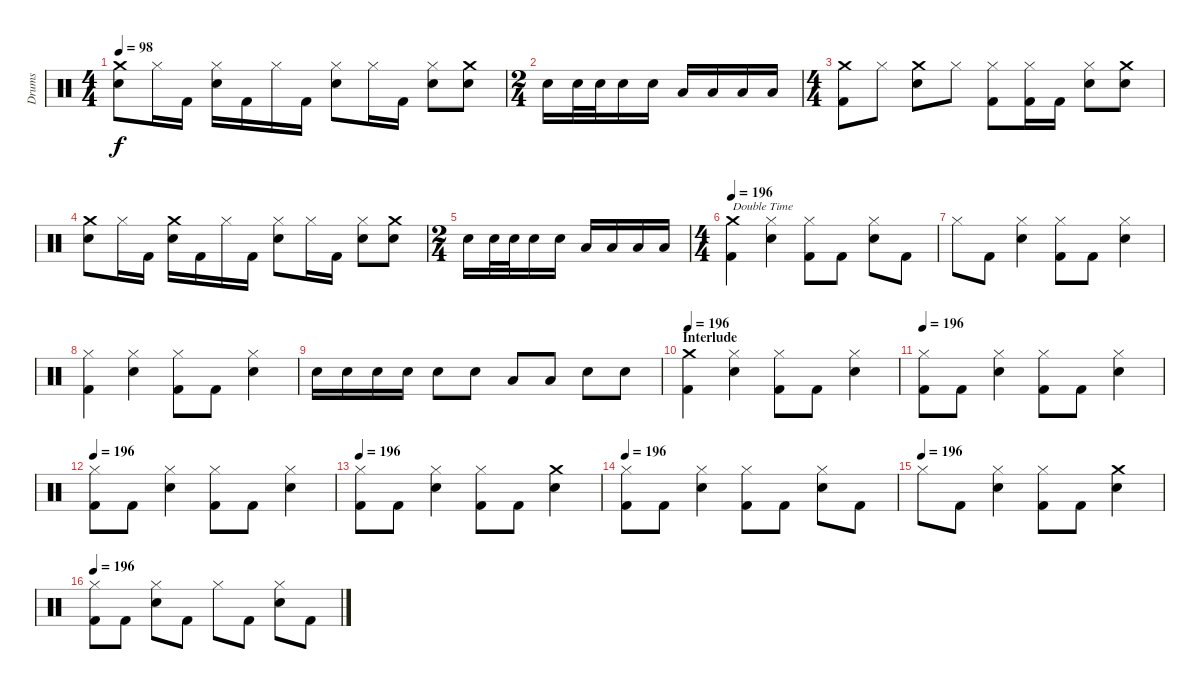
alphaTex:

\track ("Drums" "Drums") {instrument percussion}
\staff {score}
\articulation defaults
\ts (4 4)
\tempo 98
\clef neutral
\ks c
("Snare (hit) 2" "Crash medium (hit)").8{dy f} "Hi-Hat (closed)".16 "Kick (hit) 2".16 ("Snare (hit) 2" "Hi-Hat (closed)").16 "Kick (hit) 2".16 "Hi-Hat (closed)".16 "Kick (hit) 2".16 ("Hi-Hat (closed)" "Snare (hit) 2").8 "Hi-Hat (closed)".16 "Kick (hit) 2".16 ("Snare (hit) 2" "Hi-Hat (closed)").8 ("Crash medium (hit)" "Snare (hit) 2").8 |
\ts (2 4)
"Snare (hit) 2".16 "Snare (hit) 2".32 "Snare (hit) 2".32 "Snare (hit) 2".16 "Snare (hit) 2".16 "Low Tom (hit)".16 "Low Tom (hit)".16 "Low Tom (hit)".16 "Low Tom (hit)".16 |
\ts (4 4)
("Kick (hit) 2" "Crash medium (hit)").8 "Hi-Hat (closed)".8 ("Crash medium (hit)" "Snare (hit) 2").8 "Hi-Hat (closed)".8 ("Kick (hit) 2" "Hi-Hat (closed)").8 ("Kick (hit) 2" "Hi-Hat (closed)").16 "Kick (hit) 2".16 ("Snare (hit) 2" "Hi-Hat (closed)").8 ("Crash medium (hit)" "Snare (hit) 2").8 |
("Snare (hit) 2" "Crash medium (hit)").8 "Hi-Hat (closed)".16 "Kick (hit) 2".16 ("Snare (hit) 2" "Crash medium (hit)").16 "Kick (hit) 2".16 "Hi-Hat (closed)".16 "Kick (hit) 2".16 ("Snare (hit) 2" "Hi-Hat (closed)").8 "Hi-Hat (closed)".16 "Kick (hit) 2".16 ("Snare (hit) 2" "Hi-Hat (closed)").8 ("Crash medium (hit)" "Snare (hit) 2").8 |
\ts (2 4)
"Snare (hit) 2".16 "Snare (hit) 2".32 "Snare (hit) 2".32 "Snare (hit) 2".16 "Snare (hit) 2".16 "Low Tom (hit)".16 "Low Tom (hit)".16 "Low Tom (hit)".16 "Low Tom (hit)".16 |
\ts (4 4)
\tempo 196
("Kick (hit) 2" "Crash medium (hit)").4{txt "Double Time"} ("Hi-Hat (closed)" "Snare (hit) 2").4 ("Kick (hit) 2" "Hi-Hat (closed)").8 "Kick (hit) 2".8 ("Snare (hit) 2" "Hi-Hat (closed)").8 "Kick (hit) 2".8 |
"Hi-Hat (closed)".8 "Kick (hit) 2".8 ("Snare (hit) 2" "Hi-Hat (closed)").4 ("Kick (hit) 2" "Hi-Hat (closed)").8 "Kick (hit) 2".8 ("Snare (hit) 2" "Hi-Hat (closed)").4 |
("Hi-Hat (closed)" "Kick (hit) 2").4 ("Snare (hit) 2" "Hi-Hat (closed)").4 ("Kick (hit) 2" "Hi-Hat (closed)").8 "Kick (hit) 2".8 ("Snare (hit) 2" "Hi-Hat (closed)").4 |
"Snare (hit) 2".16 "Snare (hit) 2".16 "Snare (hit) 2".16 "Snare (hit) 2".16 "Snare (hit) 2".8 "Snare (hit) 2".8 "Low Tom (hit)".8 "Low Tom (hit)".8 "Snare (hit) 2".8 "Snare (hit) 2".8 |
\section ("" "Interlude")
\tempo 196
("Kick (hit) 2" "Crash medium (hit)").4 ("Hi-Hat (closed)" "Snare (hit) 2").4 ("Kick (hit) 2" "Hi-Hat (closed)").8 "Kick (hit) 2".8 ("Snare (hit) 2" "Hi-Hat (closed)").4 |
\tempo 196
("Hi-Hat (closed)" "Kick (hit) 2").8 "Kick (hit) 2".8 ("Snare (hit) 2" "Hi-Hat (closed)").4 ("Hi-Hat (closed)" "Kick (hit) 2").8 "Kick (hit) 2".8 ("Snare (hit) 2" "Hi-Hat (closed)").4 |
\tempo 196
("Hi-Hat (closed)" "Kick (hit) 2").8 "Kick (hit) 2".8 ("Snare (hit) 2" "Hi-Hat (closed)").4 ("Hi-Hat (closed)" "Kick (hit) 2").8 "Kick (hit) 2".8 ("Snare (hit) 2" "Hi-Hat (closed)").4 |
\tempo 196
("Hi-Hat (closed)" "Kick (hit) 2").8 "Kick (hit) 2".8 ("Snare (hit) 2" "Hi-Hat (closed)").4 ("Hi-Hat (closed)" "Kick (hit) 2").8 "Kick (hit) 2".8 ("Crash medium (hit)" "Snare (hit) 2").4 |
\tempo 196
("Kick (hit) 2" "Hi-Hat (closed)").8 "Kick (hit) 2".8 ("Snare (hit) 2" "Hi-Hat (closed)").4 ("Kick (hit) 2" "Hi-Hat (closed)").8 "Kick (hit) 2".8 ("Snare (hit) 2" "Hi-Hat (closed)").8 "Kick (hit) 2".8 |
\tempo (196)
"Hi-Hat (closed)".8 "Kick (hit) 2".8 ("Snare (hit) 2" "Hi-Hat (closed)").4 ("Hi-Hat (closed)" "Kick (hit) 2").8 "Kick (hit) 2".8 ("Crash medium (hit)" "Snare (hit) 2").4 |
\tempo 196
("Kick (hit) 2" "Hi-Hat (closed)").8 "Kick (hit) 2".8 ("Snare (hit) 2" "Hi-Hat (closed)").8 "Kick (hit) 2".8 "Hi-Hat (closed)".8 "Kick (hit) 2".8 ("Snare (hit) 2" "Hi-Hat (closed)").8 "Kick (hit) 2".8
